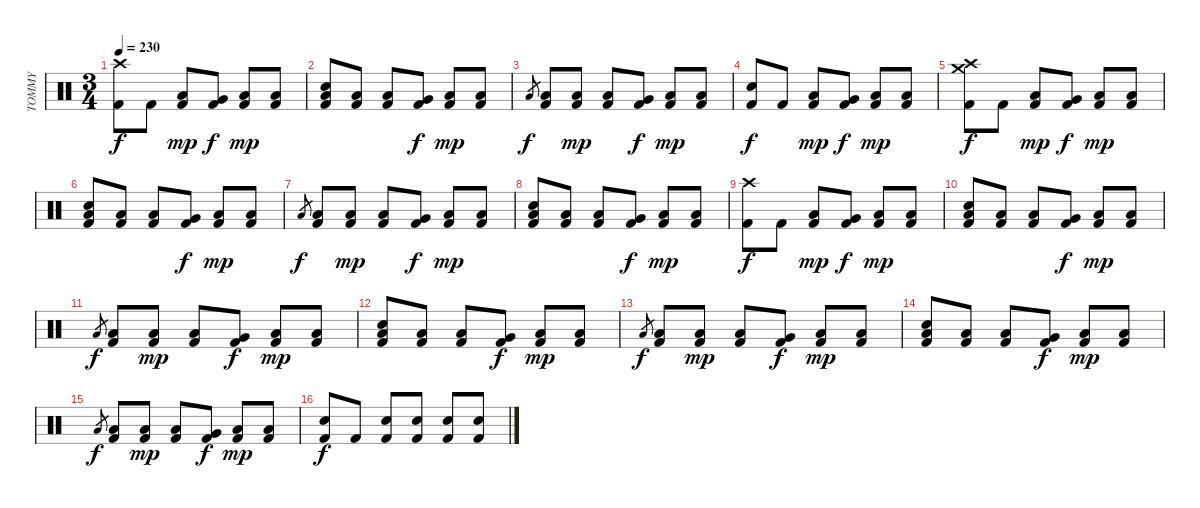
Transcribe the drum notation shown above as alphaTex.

\track ("TOMMY" "TOMMY") {instrument percussion}
\staff {score}
\articulation defaults
\ts (3 4)
\tempo 230
\clef neutral
\ks c
("Kick (hit) 2" "Crash high (hit)").8{dy f} "Kick (hit) 2".8 ("Kick (hit) 2" "Low Floor Tom (hit)").8{dy mp} ("Kick (hit) 2" "Very Low Tom (hit)").8{dy f} ("Kick (hit) 2" "Low Floor Tom (hit)").8{dy mp} ("Kick (hit) 2" "Low Floor Tom (hit)").8 |
("Snare (hit) 2" "Kick (hit) 2" "Low Floor Tom (hit)").8 ("Kick (hit) 2" "Low Floor Tom (hit)").8 ("Kick (hit) 2" "Low Floor Tom (hit)").8 ("Kick (hit) 2" "Very Low Tom (hit)").8{dy f} ("Kick (hit) 2" "Low Floor Tom (hit)").8{dy mp} ("Kick (hit) 2" "Low Floor Tom (hit)").8 |
"Low Floor Tom (hit)".8{gr dy f} ("Kick (hit) 2" "Low Floor Tom (hit)").8 ("Kick (hit) 2" "Low Floor Tom (hit)").8{dy mp} ("Kick (hit) 2" "Low Floor Tom (hit)").8 ("Kick (hit) 2" "Very Low Tom (hit)").8{dy f} ("Kick (hit) 2" "Low Floor Tom (hit)").8{dy mp} ("Kick (hit) 2" "Low Floor Tom (hit)").8 |
("Snare (hit) 2" "Kick (hit) 2").8{dy f} "Kick (hit) 2".8 ("Kick (hit) 2" "Low Floor Tom (hit)").8{dy mp} ("Kick (hit) 2" "Very Low Tom (hit)").8{dy f} ("Kick (hit) 2" "Low Floor Tom (hit)").8{dy mp} ("Kick (hit) 2" "Low Floor Tom (hit)").8 |
("Kick (hit) 2" "Crash high (hit)" "Crash medium (hit)").8{dy f} "Kick (hit) 2".8 ("Kick (hit) 2" "Low Floor Tom (hit)").8{dy mp} ("Kick (hit) 2" "Very Low Tom (hit)").8{dy f} ("Kick (hit) 2" "Low Floor Tom (hit)").8{dy mp} ("Kick (hit) 2" "Low Floor Tom (hit)").8 |
("Snare (hit) 2" "Kick (hit) 2" "Low Floor Tom (hit)").8 ("Kick (hit) 2" "Low Floor Tom (hit)").8 ("Kick (hit) 2" "Low Floor Tom (hit)").8 ("Kick (hit) 2" "Very Low Tom (hit)").8{dy f} ("Kick (hit) 2" "Low Floor Tom (hit)").8{dy mp} ("Kick (hit) 2" "Low Floor Tom (hit)").8 |
"Low Floor Tom (hit)".8{gr dy f} ("Kick (hit) 2" "Low Floor Tom (hit)").8 ("Kick (hit) 2" "Low Floor Tom (hit)").8{dy mp} ("Kick (hit) 2" "Low Floor Tom (hit)").8 ("Kick (hit) 2" "Very Low Tom (hit)").8{dy f} ("Kick (hit) 2" "Low Floor Tom (hit)").8{dy mp} ("Kick (hit) 2" "Low Floor Tom (hit)").8 |
("Snare (hit) 2" "Kick (hit) 2" "Low Floor Tom (hit)").8 ("Kick (hit) 2" "Low Floor Tom (hit)").8 ("Kick (hit) 2" "Low Floor Tom (hit)").8 ("Kick (hit) 2" "Very Low Tom (hit)").8{dy f} ("Kick (hit) 2" "Low Floor Tom (hit)").8{dy mp} ("Kick (hit) 2" "Low Floor Tom (hit)").8 |
("Kick (hit) 2" "Crash high (hit)").8{dy f} "Kick (hit) 2".8 ("Kick (hit) 2" "Low Floor Tom (hit)").8{dy mp} ("Kick (hit) 2" "Very Low Tom (hit)").8{dy f} ("Kick (hit) 2" "Low Floor Tom (hit)").8{dy mp} ("Kick (hit) 2" "Low Floor Tom (hit)").8 |
("Snare (hit) 2" "Kick (hit) 2" "Low Floor Tom (hit)").8 ("Kick (hit) 2" "Low Floor Tom (hit)").8 ("Kick (hit) 2" "Low Floor Tom (hit)").8 ("Kick (hit) 2" "Very Low Tom (hit)").8{dy f} ("Kick (hit) 2" "Low Floor Tom (hit)").8{dy mp} ("Kick (hit) 2" "Low Floor Tom (hit)").8 |
"Low Floor Tom (hit)".8{gr dy f} ("Kick (hit) 2" "Low Floor Tom (hit)").8 ("Kick (hit) 2" "Low Floor Tom (hit)").8{dy mp} ("Kick (hit) 2" "Low Floor Tom (hit)").8 ("Kick (hit) 2" "Very Low Tom (hit)").8{dy f} ("Kick (hit) 2" "Low Floor Tom (hit)").8{dy mp} ("Kick (hit) 2" "Low Floor Tom (hit)").8 |
("Snare (hit) 2" "Kick (hit) 2" "Low Floor Tom (hit)").8 ("Kick (hit) 2" "Low Floor Tom (hit)").8 ("Kick (hit) 2" "Low Floor Tom (hit)").8 ("Kick (hit) 2" "Very Low Tom (hit)").8{dy f} ("Kick (hit) 2" "Low Floor Tom (hit)").8{dy mp} ("Kick (hit) 2" "Low Floor Tom (hit)").8 |
"Low Floor Tom (hit)".8{gr dy f} ("Kick (hit) 2" "Low Floor Tom (hit)").8 ("Kick (hit) 2" "Low Floor Tom (hit)").8{dy mp} ("Kick (hit) 2" "Low Floor Tom (hit)").8 ("Kick (hit) 2" "Very Low Tom (hit)").8{dy f} ("Kick (hit) 2" "Low Floor Tom (hit)").8{dy mp} ("Kick (hit) 2" "Low Floor Tom (hit)").8 |
("Snare (hit) 2" "Kick (hit) 2" "Low Floor Tom (hit)").8 ("Kick (hit) 2" "Low Floor Tom (hit)").8 ("Kick (hit) 2" "Low Floor Tom (hit)").8 ("Kick (hit) 2" "Very Low Tom (hit)").8{dy f} ("Kick (hit) 2" "Low Floor Tom (hit)").8{dy mp} ("Kick (hit) 2" "Low Floor Tom (hit)").8 |
"Low Floor Tom (hit)".8{gr dy f} ("Kick (hit) 2" "Low Floor Tom (hit)").8 ("Kick (hit) 2" "Low Floor Tom (hit)").8{dy mp} ("Kick (hit) 2" "Low Floor Tom (hit)").8 ("Kick (hit) 2" "Very Low Tom (hit)").8{dy f} ("Kick (hit) 2" "Low Floor Tom (hit)").8{dy mp} ("Kick (hit) 2" "Low Floor Tom (hit)").8 |
("Snare (hit) 2" "Kick (hit) 2").8{dy f} "Kick (hit) 2".8 ("Snare (hit) 2" "Kick (hit) 2").8 ("Snare (hit) 2" "Kick (hit) 2").8 ("Snare (hit) 2" "Kick (hit) 2").8 ("Snare (hit) 2" "Kick (hit) 2").8
